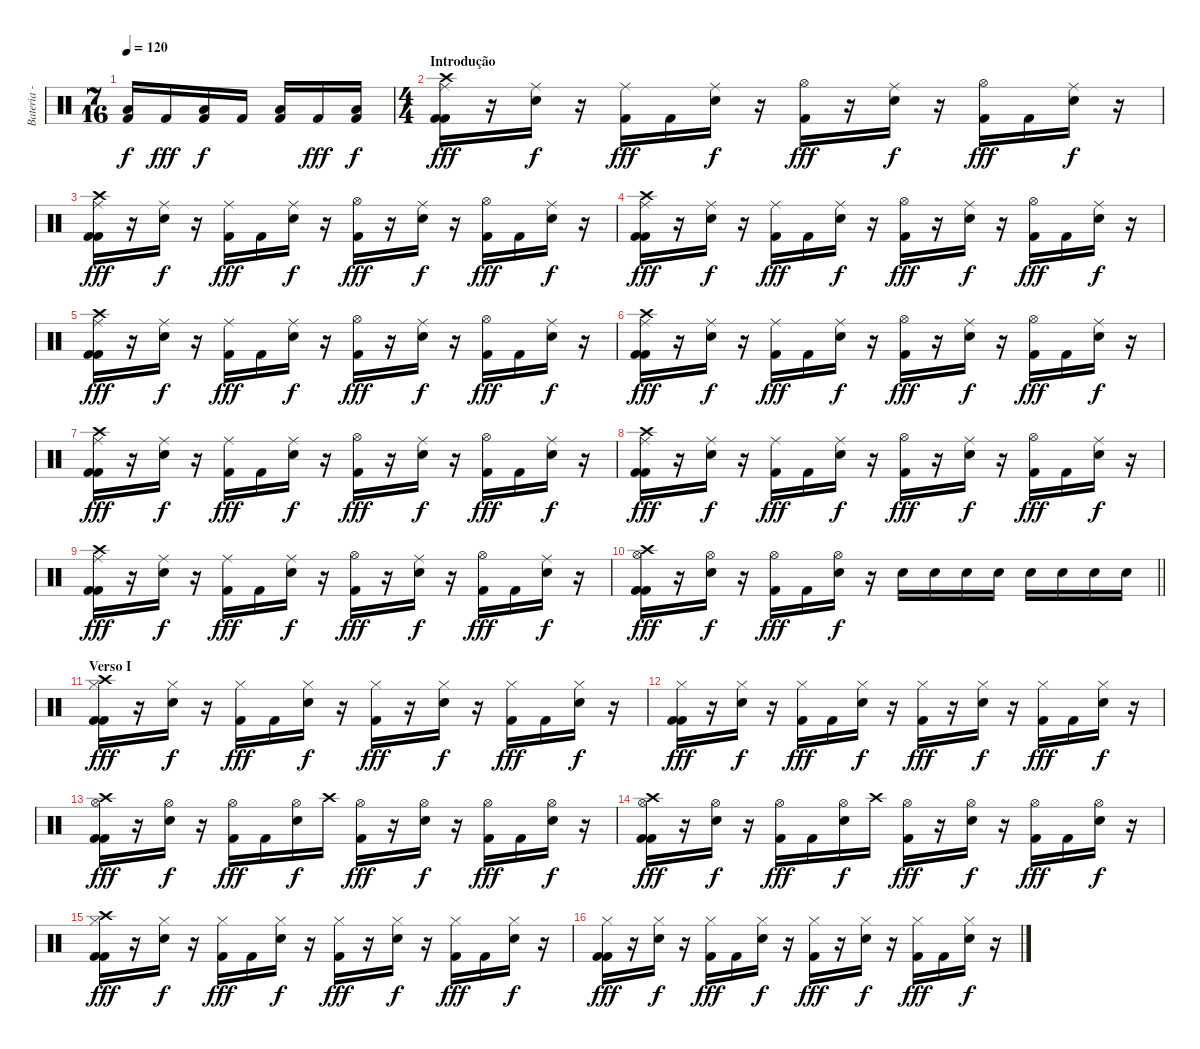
\track ("Bateria - Larzon" "Bateria - ") {instrument percussion}
\staff {score}
\articulation defaults
\ts (7 16)
\tempo 120
\clef neutral
\ks c
("Low Floor Tom (hit)" "Kick (hit) 2").16{dy f} "Kick (hit) 2".16{dy fff} ("Low Floor Tom (hit)" "Kick (hit) 2").16{dy f} "Kick (hit) 2".16 ("Low Floor Tom (hit)" "Kick (hit) 2").16 "Kick (hit) 2".16{dy fff} ("Low Floor Tom (hit)" "Kick (hit) 2").16{dy f} |
\ts (4 4)
\section ("" "Introdução")
("Kick (hit) 2" "Kick (hit) 2" "Crash high (hit)" "Ride (middle)").16{dy fff} r.16 ("Snare (hit) 2" "Ride (middle)").16{dy f} r.16 ("Kick (hit) 2" "Ride (middle)").16{dy fff} "Kick (hit) 2".16 ("Snare (hit) 2" "Ride (middle)").16{dy f} r.16 ("Kick (hit) 2" "Hi-Hat (open)").16{dy fff} r.16 ("Snare (hit) 2" "Ride (middle)").16{dy f} r.16 ("Kick (hit) 2" "Hi-Hat (open)").16{dy fff} "Kick (hit) 2".16 ("Snare (hit) 2" "Ride (middle)").16{dy f} r.16 |
("Kick (hit) 2" "Kick (hit) 2" "Crash high (hit)" "Ride (middle)").16{dy fff} r.16 ("Snare (hit) 2" "Ride (middle)").16{dy f} r.16 ("Kick (hit) 2" "Ride (middle)").16{dy fff} "Kick (hit) 2".16 ("Snare (hit) 2" "Ride (middle)").16{dy f} r.16 ("Kick (hit) 2" "Hi-Hat (open)").16{dy fff} r.16 ("Snare (hit) 2" "Ride (middle)").16{dy f} r.16 ("Kick (hit) 2" "Hi-Hat (open)").16{dy fff} "Kick (hit) 2".16 ("Snare (hit) 2" "Ride (middle)").16{dy f} r.16 |
("Kick (hit) 2" "Kick (hit) 2" "Crash high (hit)" "Ride (middle)").16{dy fff} r.16 ("Snare (hit) 2" "Ride (middle)").16{dy f} r.16 ("Kick (hit) 2" "Ride (middle)").16{dy fff} "Kick (hit) 2".16 ("Snare (hit) 2" "Ride (middle)").16{dy f} r.16 ("Kick (hit) 2" "Hi-Hat (open)").16{dy fff} r.16 ("Snare (hit) 2" "Ride (middle)").16{dy f} r.16 ("Kick (hit) 2" "Hi-Hat (open)").16{dy fff} "Kick (hit) 2".16 ("Snare (hit) 2" "Ride (middle)").16{dy f} r.16 |
("Kick (hit) 2" "Kick (hit) 2" "Crash high (hit)" "Ride (middle)").16{dy fff} r.16 ("Snare (hit) 2" "Ride (middle)").16{dy f} r.16 ("Kick (hit) 2" "Ride (middle)").16{dy fff} "Kick (hit) 2".16 ("Snare (hit) 2" "Ride (middle)").16{dy f} r.16 ("Kick (hit) 2" "Hi-Hat (open)").16{dy fff} r.16 ("Snare (hit) 2" "Ride (middle)").16{dy f} r.16 ("Kick (hit) 2" "Hi-Hat (open)").16{dy fff} "Kick (hit) 2".16 ("Snare (hit) 2" "Ride (middle)").16{dy f} r.16 |
("Kick (hit) 2" "Kick (hit) 2" "Crash high (hit)" "Ride (middle)").16{dy fff} r.16 ("Snare (hit) 2" "Ride (middle)").16{dy f} r.16 ("Kick (hit) 2" "Ride (middle)").16{dy fff} "Kick (hit) 2".16 ("Snare (hit) 2" "Ride (middle)").16{dy f} r.16 ("Kick (hit) 2" "Hi-Hat (open)").16{dy fff} r.16 ("Snare (hit) 2" "Ride (middle)").16{dy f} r.16 ("Kick (hit) 2" "Hi-Hat (open)").16{dy fff} "Kick (hit) 2".16 ("Snare (hit) 2" "Ride (middle)").16{dy f} r.16 |
("Kick (hit) 2" "Kick (hit) 2" "Crash high (hit)" "Ride (middle)").16{dy fff} r.16 ("Snare (hit) 2" "Ride (middle)").16{dy f} r.16 ("Kick (hit) 2" "Ride (middle)").16{dy fff} "Kick (hit) 2".16 ("Snare (hit) 2" "Ride (middle)").16{dy f} r.16 ("Kick (hit) 2" "Hi-Hat (open)").16{dy fff} r.16 ("Snare (hit) 2" "Ride (middle)").16{dy f} r.16 ("Kick (hit) 2" "Hi-Hat (open)").16{dy fff} "Kick (hit) 2".16 ("Snare (hit) 2" "Ride (middle)").16{dy f} r.16 |
("Kick (hit) 2" "Kick (hit) 2" "Crash high (hit)" "Ride (middle)").16{dy fff} r.16 ("Snare (hit) 2" "Ride (middle)").16{dy f} r.16 ("Kick (hit) 2" "Ride (middle)").16{dy fff} "Kick (hit) 2".16 ("Snare (hit) 2" "Ride (middle)").16{dy f} r.16 ("Kick (hit) 2" "Hi-Hat (open)").16{dy fff} r.16 ("Snare (hit) 2" "Ride (middle)").16{dy f} r.16 ("Kick (hit) 2" "Hi-Hat (open)").16{dy fff} "Kick (hit) 2".16 ("Snare (hit) 2" "Ride (middle)").16{dy f} r.16 |
("Kick (hit) 2" "Kick (hit) 2" "Crash high (hit)" "Ride (middle)").16{dy fff} r.16 ("Snare (hit) 2" "Ride (middle)").16{dy f} r.16 ("Kick (hit) 2" "Ride (middle)").16{dy fff} "Kick (hit) 2".16 ("Snare (hit) 2" "Ride (middle)").16{dy f} r.16 ("Kick (hit) 2" "Hi-Hat (open)").16{dy fff} r.16 ("Snare (hit) 2" "Ride (middle)").16{dy f} r.16 ("Kick (hit) 2" "Hi-Hat (open)").16{dy fff} "Kick (hit) 2".16 ("Snare (hit) 2" "Ride (middle)").16{dy f} r.16 |
\barLineRight lightlight
("Kick (hit) 2" "Kick (hit) 2" "Crash high (hit)" "Hi-Hat (open)").16{dy fff} r.16 ("Snare (hit) 2" "Hi-Hat (open)").16{dy f} r.16 ("Kick (hit) 2" "Hi-Hat (open)").16{dy fff} "Kick (hit) 2".16 ("Snare (hit) 2" "Hi-Hat (open)").16{dy f} r.16 "Snare (hit) 2".16 "Snare (hit) 2".16 "Snare (hit) 2".16 "Snare (hit) 2".16 "Snare (hit) 2".16 "Snare (hit) 2".16 "Snare (hit) 2".16 "Snare (hit) 2".16 |
\section ("" "Verso I")
("Kick (hit) 2" "Kick (hit) 2" "Crash high (hit)" "Hi-Hat (closed)").16{dy fff} r.16 ("Snare (hit) 2" "Hi-Hat (closed)").16{dy f} r.16 ("Kick (hit) 2" "Hi-Hat (closed)").16{dy fff} "Kick (hit) 2".16 ("Snare (hit) 2" "Hi-Hat (closed)").16{dy f} r.16 ("Kick (hit) 2" "Hi-Hat (closed)").16{dy fff} r.16 ("Snare (hit) 2" "Hi-Hat (closed)").16{dy f} r.16 ("Kick (hit) 2" "Hi-Hat (closed)").16{dy fff} "Kick (hit) 2".16 ("Snare (hit) 2" "Hi-Hat (closed)").16{dy f} r.16 |
("Kick (hit) 2" "Kick (hit) 2" "Hi-Hat (closed)").16{dy fff} r.16 ("Snare (hit) 2" "Hi-Hat (closed)").16{dy f} r.16 ("Kick (hit) 2" "Hi-Hat (closed)").16{dy fff} "Kick (hit) 2".16 ("Snare (hit) 2" "Hi-Hat (closed)").16{dy f} r.16 ("Kick (hit) 2" "Hi-Hat (closed)").16{dy fff} r.16 ("Snare (hit) 2" "Hi-Hat (closed)").16{dy f} r.16 ("Kick (hit) 2" "Hi-Hat (closed)").16{dy fff} "Kick (hit) 2".16 ("Snare (hit) 2" "Hi-Hat (closed)").16{dy f} r.16 |
("Kick (hit) 2" "Kick (hit) 2" "Crash high (hit)" "Hi-Hat (open)").16{dy fff} r.16 ("Snare (hit) 2" "Hi-Hat (open)").16{dy f} r.16 ("Kick (hit) 2" "Hi-Hat (open)").16{dy fff} "Kick (hit) 2".16 ("Snare (hit) 2" "Hi-Hat (open)").16{dy f} "Crash high (hit)".16 ("Kick (hit) 2" "Hi-Hat (open)").16{dy fff} r.16 ("Snare (hit) 2" "Hi-Hat (open)").16{dy f} r.16 ("Kick (hit) 2" "Hi-Hat (open)").16{dy fff} "Kick (hit) 2".16 ("Snare (hit) 2" "Hi-Hat (open)").16{dy f} r.16 |
("Kick (hit) 2" "Kick (hit) 2" "Crash high (hit)" "Hi-Hat (open)").16{dy fff} r.16 ("Snare (hit) 2" "Hi-Hat (open)").16{dy f} r.16 ("Kick (hit) 2" "Hi-Hat (open)").16{dy fff} "Kick (hit) 2".16 ("Snare (hit) 2" "Hi-Hat (open)").16{dy f} "Crash high (hit)".16 ("Kick (hit) 2" "Hi-Hat (open)").16{dy fff} r.16 ("Snare (hit) 2" "Hi-Hat (open)").16{dy f} r.16 ("Kick (hit) 2" "Hi-Hat (open)").16{dy fff} "Kick (hit) 2".16 ("Snare (hit) 2" "Hi-Hat (open)").16{dy f} r.16 |
("Kick (hit) 2" "Kick (hit) 2" "Crash high (hit)" "Hi-Hat (closed)").16{dy fff} r.16 ("Snare (hit) 2" "Hi-Hat (closed)").16{dy f} r.16 ("Kick (hit) 2" "Hi-Hat (closed)").16{dy fff} "Kick (hit) 2".16 ("Snare (hit) 2" "Hi-Hat (closed)").16{dy f} r.16 ("Kick (hit) 2" "Hi-Hat (closed)").16{dy fff} r.16 ("Snare (hit) 2" "Hi-Hat (closed)").16{dy f} r.16 ("Kick (hit) 2" "Hi-Hat (closed)").16{dy fff} "Kick (hit) 2".16 ("Snare (hit) 2" "Hi-Hat (closed)").16{dy f} r.16 |
("Kick (hit) 2" "Kick (hit) 2" "Hi-Hat (closed)").16{dy fff} r.16 ("Snare (hit) 2" "Hi-Hat (closed)").16{dy f} r.16 ("Kick (hit) 2" "Hi-Hat (closed)").16{dy fff} "Kick (hit) 2".16 ("Snare (hit) 2" "Hi-Hat (closed)").16{dy f} r.16 ("Kick (hit) 2" "Hi-Hat (closed)").16{dy fff} r.16 ("Snare (hit) 2" "Hi-Hat (closed)").16{dy f} r.16 ("Kick (hit) 2" "Hi-Hat (closed)").16{dy fff} "Kick (hit) 2".16 ("Snare (hit) 2" "Hi-Hat (closed)").16{dy f} r.16
